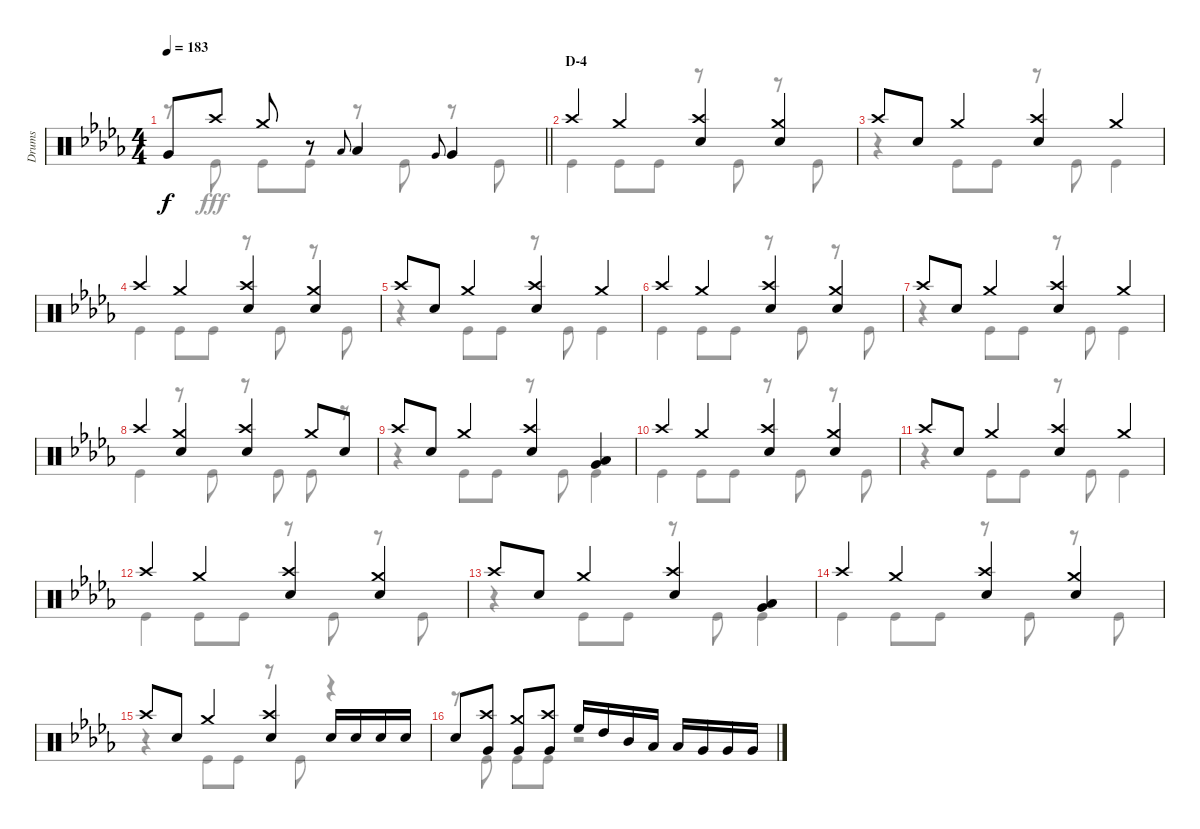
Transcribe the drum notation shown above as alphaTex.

\track ("Drums" "Drums") {instrument percussion}
\staff {score}
\articulation defaults
\voice
\ts (4 4)
\tempo 183
\clef neutral
\barLineRight lightlight
\ks db "Very Low Tom (hit)".8{dy f} "Crash high (hit)".8 "Crash medium (hit)".8
r.8 "Low Tom (hit)".8{gr onbeat} "Low Tom (hit)".4 "Very Low Tom (hit)".8{gr onbeat} "Very Low Tom (hit)".4 |
\section ("" "D-4")
"Crash high (hit)".4 "Crash medium (hit)".4 ("Crash high (hit)" "Snare (hit) 2").4 ("Crash medium (hit)" "Snare (hit) 2").4 |
"Crash high (hit)".8 "Snare (hit) 2".8 "Crash medium (hit)".4 ("Crash high (hit)" "Snare (hit) 2").4 "Crash medium (hit)".4 |
"Crash high (hit)".4 "Crash medium (hit)".4 ("Crash high (hit)" "Snare (hit) 2").4 ("Crash medium (hit)" "Snare (hit) 2").4 |
"Crash high (hit)".8 "Snare (hit) 2".8 "Crash medium (hit)".4 ("Crash high (hit)" "Snare (hit) 2").4 "Crash medium (hit)".4 |
"Crash high (hit)".4 "Crash medium (hit)".4 ("Crash high (hit)" "Snare (hit) 2").4 ("Crash medium (hit)" "Snare (hit) 2").4 |
"Crash high (hit)".8 "Snare (hit) 2".8 "Crash medium (hit)".4 ("Crash high (hit)" "Snare (hit) 2").4 "Crash medium (hit)".4 |
"Crash high (hit)".4 ("Crash medium (hit)" "Snare (hit) 2").4 ("Crash high (hit)" "Snare (hit) 2").4 "Crash medium (hit)".8 "Snare (hit) 2".8 |
"Crash high (hit)".8 "Snare (hit) 2".8 "Crash medium (hit)".4 ("Crash high (hit)" "Snare (hit) 2").4 ("Low Tom (hit)" "Very Low Tom (hit)").4 |
"Crash high (hit)".4 "Crash medium (hit)".4 ("Crash high (hit)" "Snare (hit) 2").4 ("Crash medium (hit)" "Snare (hit) 2").4 |
"Crash high (hit)".8 "Snare (hit) 2".8 "Crash medium (hit)".4 ("Crash high (hit)" "Snare (hit) 2").4 "Crash medium (hit)".4 |
"Crash high (hit)".4 "Crash medium (hit)".4 ("Crash high (hit)" "Snare (hit) 2").4 ("Crash medium (hit)" "Snare (hit) 2").4 |
"Crash high (hit)".8 "Snare (hit) 2".8 "Crash medium (hit)".4 ("Crash high (hit)" "Snare (hit) 2").4 ("Low Tom (hit)" "Very Low Tom (hit)").4 |
"Crash high (hit)".4 "Crash medium (hit)".4 ("Crash high (hit)" "Snare (hit) 2").4 ("Crash medium (hit)" "Snare (hit) 2").4 |
"Crash high (hit)".8 "Snare (hit) 2".8 "Crash medium (hit)".4 ("Crash high (hit)" "Snare (hit) 2").4 "Snare (hit) 2".16 "Snare (hit) 2".16 "Snare (hit) 2".16 "Snare (hit) 2".16 |
"Snare (hit) 2".8 ("Crash high (hit)" "Very Low Tom (hit)").8 ("Crash medium (hit)" "Very Low Tom (hit)").8 ("Crash high (hit)" "Very Low Tom (hit)").8 "High Floor Tom (hit)".16 "High Tom (hit)".16 "Mid Tom (hit)".16 "Low Tom (hit)".16 "Low Tom (hit)".16 "Very Low Tom (hit)".16 "Very Low Tom (hit)".16 "Very Low Tom (hit)".16
\voice
\clef neutral
\ottava regular
\simile none
\barLineRight lightlight
\ks db
r.8{dy fff} "Kick (hit)".8 "Kick (hit)".8 "Kick (hit)".8 r.8 "Kick (hit)".8 r.8 "Kick (hit)".8 |
"Kick (hit)".4 "Kick (hit)".8 "Kick (hit)".8 r.8 "Kick (hit)".8 r.8 "Kick (hit)".8 |
r.4 "Kick (hit)".8 "Kick (hit)".8 r.8 "Kick (hit)".8 "Kick (hit)".4 |
"Kick (hit)".4 "Kick (hit)".8 "Kick (hit)".8 r.8 "Kick (hit)".8 r.8 "Kick (hit)".8 |
r.4 "Kick (hit)".8 "Kick (hit)".8 r.8 "Kick (hit)".8 "Kick (hit)".4 |
"Kick (hit)".4 "Kick (hit)".8 "Kick (hit)".8 r.8 "Kick (hit)".8 r.8 "Kick (hit)".8 |
r.4 "Kick (hit)".8 "Kick (hit)".8 r.8 "Kick (hit)".8 "Kick (hit)".4 |
"Kick (hit)".4 r.8 "Kick (hit)".8 r.8 "Kick (hit)".8 "Kick (hit)".8 r.8 |
r.4 "Kick (hit)".8 "Kick (hit)".8 r.8 "Kick (hit)".8 "Kick (hit)".4 |
"Kick (hit)".4 "Kick (hit)".8 "Kick (hit)".8 r.8 "Kick (hit)".8 r.8 "Kick (hit)".8 |
r.4 "Kick (hit)".8 "Kick (hit)".8 r.8 "Kick (hit)".8 "Kick (hit)".4 |
"Kick (hit)".4 "Kick (hit)".8 "Kick (hit)".8 r.8 "Kick (hit)".8 r.8 "Kick (hit)".8 |
r.4 "Kick (hit)".8 "Kick (hit)".8 r.8 "Kick (hit)".8 "Kick (hit)".4 |
"Kick (hit)".4 "Kick (hit)".8 "Kick (hit)".8 r.8 "Kick (hit)".8 r.8 "Kick (hit)".8 |
r.4 "Kick (hit)".8 "Kick (hit)".8 r.8 "Kick (hit)".8 r.4 |
r.8 "Kick (hit)".8 "Kick (hit)".8 "Kick (hit)".8 r.2
